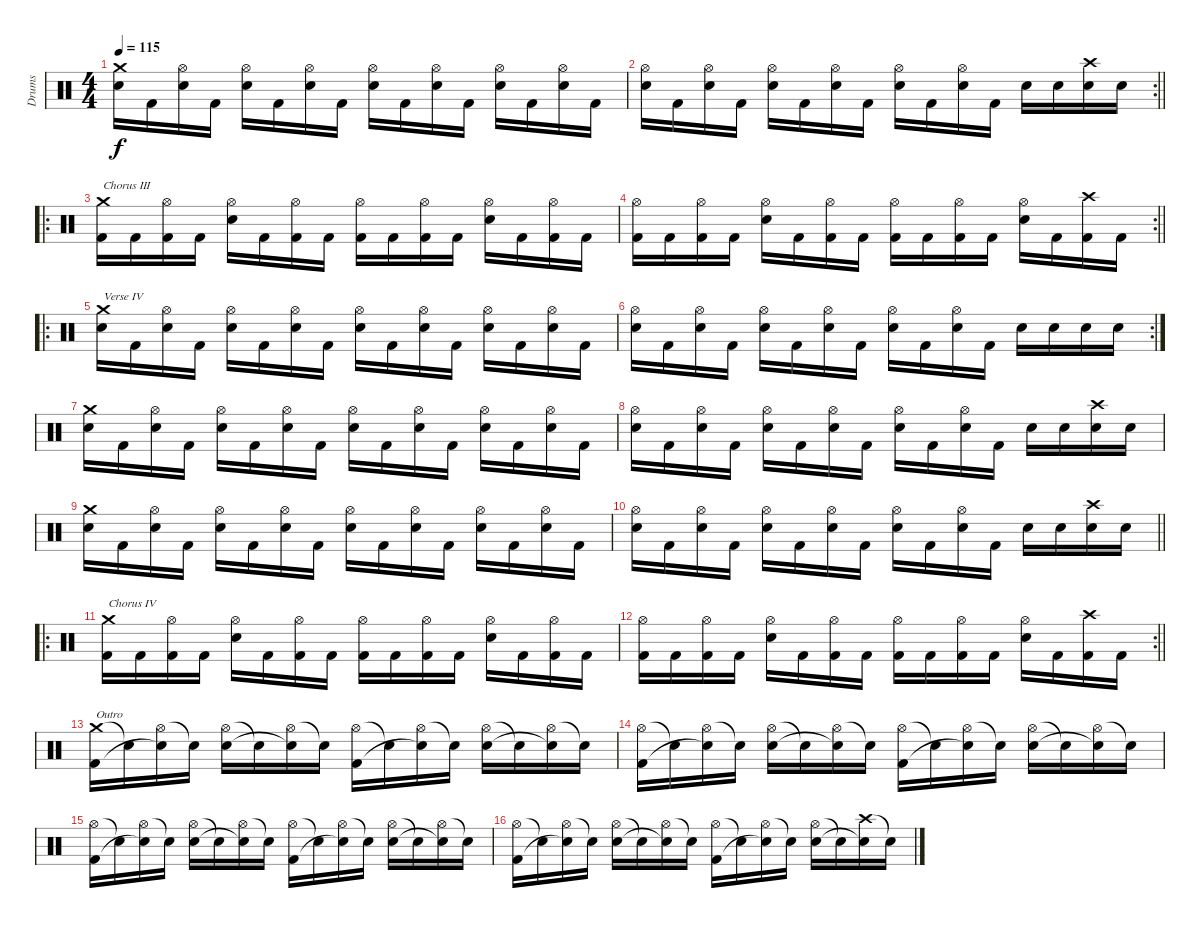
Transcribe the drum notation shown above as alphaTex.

\track ("Drums" "Drums") {instrument percussion}
\staff {score}
\articulation defaults
\ts (4 4)
\tempo 115
\clef neutral
\ks c
("Crash medium (hit)" "Electric Snare (hit)").16{dy f} "Kick (hit) 2".16 ("Hi-Hat (open)" "Electric Snare (hit)").16 "Kick (hit) 2".16 ("Hi-Hat (open)" "Electric Snare (hit)").16 "Kick (hit) 2".16 ("Hi-Hat (open)" "Electric Snare (hit)").16 "Kick (hit) 2".16 ("Hi-Hat (open)" "Electric Snare (hit)").16 "Kick (hit) 2".16 ("Hi-Hat (open)" "Electric Snare (hit)").16 "Kick (hit) 2".16 ("Hi-Hat (open)" "Electric Snare (hit)").16 "Kick (hit) 2".16 ("Hi-Hat (open)" "Electric Snare (hit)").16 "Kick (hit) 2".16 |
\rc 2
\barLineRight lightlight
("Hi-Hat (open)" "Electric Snare (hit)").16 "Kick (hit) 2".16 ("Hi-Hat (open)" "Electric Snare (hit)").16 "Kick (hit) 2".16 ("Hi-Hat (open)" "Electric Snare (hit)").16 "Kick (hit) 2".16 ("Hi-Hat (open)" "Electric Snare (hit)").16 "Kick (hit) 2".16 ("Hi-Hat (open)" "Electric Snare (hit)").16 "Kick (hit) 2".16 ("Hi-Hat (open)" "Electric Snare (hit)").16 "Kick (hit) 2".16 "Electric Snare (hit)".16 "Electric Snare (hit)".16 ("Crash high (hit)" "Electric Snare (hit)").16 "Electric Snare (hit)".16 |
\ro
("Crash medium (hit)" "Kick (hit) 2").16{txt "Chorus III"} "Kick (hit) 2".16 ("Hi-Hat (open)" "Kick (hit) 2").16 "Kick (hit) 2".16 ("Hi-Hat (open)" "Electric Snare (hit)").16 "Kick (hit) 2".16 ("Hi-Hat (open)" "Kick (hit) 2").16 "Kick (hit) 2".16 ("Hi-Hat (open)" "Kick (hit) 2").16 "Kick (hit) 2".16 ("Hi-Hat (open)" "Kick (hit) 2").16 "Kick (hit) 2".16 ("Hi-Hat (open)" "Electric Snare (hit)").16 "Kick (hit) 2".16 ("Hi-Hat (open)" "Kick (hit) 2").16 "Kick (hit) 2".16 |
\rc 2
\barLineRight lightlight
("Hi-Hat (open)" "Kick (hit) 2").16 "Kick (hit) 2".16 ("Hi-Hat (open)" "Kick (hit) 2").16 "Kick (hit) 2".16 ("Hi-Hat (open)" "Electric Snare (hit)").16 "Kick (hit) 2".16 ("Hi-Hat (open)" "Kick (hit) 2").16 "Kick (hit) 2".16 ("Hi-Hat (open)" "Kick (hit) 2").16 "Kick (hit) 2".16 ("Hi-Hat (open)" "Kick (hit) 2").16 "Kick (hit) 2".16 ("Hi-Hat (open)" "Electric Snare (hit)").16 "Kick (hit) 2".16 ("Crash high (hit)" "Kick (hit) 2").16 "Kick (hit) 2".16 |
\ro
("Crash medium (hit)" "Electric Snare (hit)").16{txt "Verse IV"} "Kick (hit) 2".16 ("Hi-Hat (open)" "Electric Snare (hit)").16 "Kick (hit) 2".16 ("Hi-Hat (open)" "Electric Snare (hit)").16 "Kick (hit) 2".16 ("Hi-Hat (open)" "Electric Snare (hit)").16 "Kick (hit) 2".16 ("Hi-Hat (open)" "Electric Snare (hit)").16 "Kick (hit) 2".16 ("Hi-Hat (open)" "Electric Snare (hit)").16 "Kick (hit) 2".16 ("Hi-Hat (open)" "Electric Snare (hit)").16 "Kick (hit) 2".16 ("Hi-Hat (open)" "Electric Snare (hit)").16 "Kick (hit) 2".16 |
\rc 2
("Hi-Hat (open)" "Electric Snare (hit)").16 "Kick (hit) 2".16 ("Hi-Hat (open)" "Electric Snare (hit)").16 "Kick (hit) 2".16 ("Hi-Hat (open)" "Electric Snare (hit)").16 "Kick (hit) 2".16 ("Hi-Hat (open)" "Electric Snare (hit)").16 "Kick (hit) 2".16 ("Hi-Hat (open)" "Electric Snare (hit)").16 "Kick (hit) 2".16 ("Hi-Hat (open)" "Electric Snare (hit)").16 "Kick (hit) 2".16 "Electric Snare (hit)".16 "Electric Snare (hit)".16 "Electric Snare (hit)".16 "Electric Snare (hit)".16 |
("Crash medium (hit)" "Electric Snare (hit)").16 "Kick (hit) 2".16 ("Hi-Hat (open)" "Electric Snare (hit)").16 "Kick (hit) 2".16 ("Hi-Hat (open)" "Electric Snare (hit)").16 "Kick (hit) 2".16 ("Hi-Hat (open)" "Electric Snare (hit)").16 "Kick (hit) 2".16 ("Hi-Hat (open)" "Electric Snare (hit)").16 "Kick (hit) 2".16 ("Hi-Hat (open)" "Electric Snare (hit)").16 "Kick (hit) 2".16 ("Hi-Hat (open)" "Electric Snare (hit)").16 "Kick (hit) 2".16 ("Hi-Hat (open)" "Electric Snare (hit)").16 "Kick (hit) 2".16 |
("Hi-Hat (open)" "Electric Snare (hit)").16 "Kick (hit) 2".16 ("Hi-Hat (open)" "Electric Snare (hit)").16 "Kick (hit) 2".16 ("Hi-Hat (open)" "Electric Snare (hit)").16 "Kick (hit) 2".16 ("Hi-Hat (open)" "Electric Snare (hit)").16 "Kick (hit) 2".16 ("Hi-Hat (open)" "Electric Snare (hit)").16 "Kick (hit) 2".16 ("Hi-Hat (open)" "Electric Snare (hit)").16 "Kick (hit) 2".16 "Electric Snare (hit)".16 "Electric Snare (hit)".16 ("Crash high (hit)" "Electric Snare (hit)").16 "Electric Snare (hit)".16 |
("Crash medium (hit)" "Electric Snare (hit)").16 "Kick (hit) 2".16 ("Hi-Hat (open)" "Electric Snare (hit)").16 "Kick (hit) 2".16 ("Hi-Hat (open)" "Electric Snare (hit)").16 "Kick (hit) 2".16 ("Hi-Hat (open)" "Electric Snare (hit)").16 "Kick (hit) 2".16 ("Hi-Hat (open)" "Electric Snare (hit)").16 "Kick (hit) 2".16 ("Hi-Hat (open)" "Electric Snare (hit)").16 "Kick (hit) 2".16 ("Hi-Hat (open)" "Electric Snare (hit)").16 "Kick (hit) 2".16 ("Hi-Hat (open)" "Electric Snare (hit)").16 "Kick (hit) 2".16 |
\barLineRight lightlight
("Hi-Hat (open)" "Electric Snare (hit)").16 "Kick (hit) 2".16 ("Hi-Hat (open)" "Electric Snare (hit)").16 "Kick (hit) 2".16 ("Hi-Hat (open)" "Electric Snare (hit)").16 "Kick (hit) 2".16 ("Hi-Hat (open)" "Electric Snare (hit)").16 "Kick (hit) 2".16 ("Hi-Hat (open)" "Electric Snare (hit)").16 "Kick (hit) 2".16 ("Hi-Hat (open)" "Electric Snare (hit)").16 "Kick (hit) 2".16 "Electric Snare (hit)".16 "Electric Snare (hit)".16 ("Crash high (hit)" "Electric Snare (hit)").16 "Electric Snare (hit)".16 |
\ro
("Crash medium (hit)" "Kick (hit) 2").16{txt "Chorus IV"} "Kick (hit) 2".16 ("Hi-Hat (open)" "Kick (hit) 2").16 "Kick (hit) 2".16 ("Hi-Hat (open)" "Electric Snare (hit)").16 "Kick (hit) 2".16 ("Hi-Hat (open)" "Kick (hit) 2").16 "Kick (hit) 2".16 ("Hi-Hat (open)" "Kick (hit) 2").16 "Kick (hit) 2".16 ("Hi-Hat (open)" "Kick (hit) 2").16 "Kick (hit) 2".16 ("Hi-Hat (open)" "Electric Snare (hit)").16 "Kick (hit) 2".16 ("Hi-Hat (open)" "Kick (hit) 2").16 "Kick (hit) 2".16 |
\rc 2
\barLineRight lightlight
("Hi-Hat (open)" "Kick (hit) 2").16 "Kick (hit) 2".16 ("Hi-Hat (open)" "Kick (hit) 2").16 "Kick (hit) 2".16 ("Hi-Hat (open)" "Electric Snare (hit)").16 "Kick (hit) 2".16 ("Hi-Hat (open)" "Kick (hit) 2").16 "Kick (hit) 2".16 ("Hi-Hat (open)" "Kick (hit) 2").16 "Kick (hit) 2".16 ("Hi-Hat (open)" "Kick (hit) 2").16 "Kick (hit) 2".16 ("Hi-Hat (open)" "Electric Snare (hit)").16 "Kick (hit) 2".16 ("Crash high (hit)" "Kick (hit) 2").16 "Kick (hit) 2".16 |
("Crash medium (hit)" "Kick (hit) 2").16{txt "Outro"} "Snare (hit)"{t}.16 ("Hi-Hat (open)" "Snare (hit)"{t}).16 "Snare (hit)"{t}.16 ("Hi-Hat (open)" "Electric Snare (hit)").16 "Snare (hit)"{t}.16 ("Hi-Hat (open)" "Snare (hit)"{t}).16 "Snare (hit)"{t}.16 ("Hi-Hat (open)" "Kick (hit) 2").16 "Snare (hit)"{t}.16 ("Hi-Hat (open)" "Snare (hit)"{t}).16 "Snare (hit)"{t}.16 ("Hi-Hat (open)" "Electric Snare (hit)").16 "Snare (hit)"{t}.16 ("Hi-Hat (open)" "Snare (hit)"{t}).16 "Snare (hit)"{t}.16 |
("Hi-Hat (open)" "Kick (hit) 2").16 "Snare (hit)"{t}.16 ("Hi-Hat (open)" "Snare (hit)"{t}).16 "Snare (hit)"{t}.16 ("Hi-Hat (open)" "Electric Snare (hit)").16 "Snare (hit)"{t}.16 ("Hi-Hat (open)" "Snare (hit)"{t}).16 "Snare (hit)"{t}.16 ("Hi-Hat (open)" "Kick (hit) 2").16 "Snare (hit)"{t}.16 ("Hi-Hat (open)" "Snare (hit)"{t}).16 "Snare (hit)"{t}.16 ("Hi-Hat (open)" "Electric Snare (hit)").16 "Snare (hit)"{t}.16 ("Hi-Hat (open)" "Snare (hit)"{t}).16 "Snare (hit)"{t}.16 |
("Hi-Hat (open)" "Kick (hit) 2").16 "Snare (hit)"{t}.16 ("Hi-Hat (open)" "Snare (hit)"{t}).16 "Snare (hit)"{t}.16 ("Hi-Hat (open)" "Electric Snare (hit)").16 "Snare (hit)"{t}.16 ("Hi-Hat (open)" "Snare (hit)"{t}).16 "Snare (hit)"{t}.16 ("Hi-Hat (open)" "Kick (hit) 2").16 "Snare (hit)"{t}.16 ("Hi-Hat (open)" "Snare (hit)"{t}).16 "Snare (hit)"{t}.16 ("Hi-Hat (open)" "Electric Snare (hit)").16 "Snare (hit)"{t}.16 ("Hi-Hat (open)" "Snare (hit)"{t}).16 "Snare (hit)"{t}.16 |
("Hi-Hat (open)" "Kick (hit) 2").16 "Snare (hit)"{t}.16 ("Hi-Hat (open)" "Snare (hit)"{t}).16 "Snare (hit)"{t}.16 ("Hi-Hat (open)" "Electric Snare (hit)").16 "Snare (hit)"{t}.16 ("Hi-Hat (open)" "Snare (hit)"{t}).16 "Snare (hit)"{t}.16 ("Hi-Hat (open)" "Kick (hit) 2").16 "Snare (hit)"{t}.16 ("Hi-Hat (open)" "Snare (hit)"{t}).16 "Snare (hit)"{t}.16 ("Hi-Hat (open)" "Electric Snare (hit)").16 "Snare (hit)"{t}.16 ("Crash high (hit)" "Snare (hit)"{t}).16 "Snare (hit)"{t}.16
